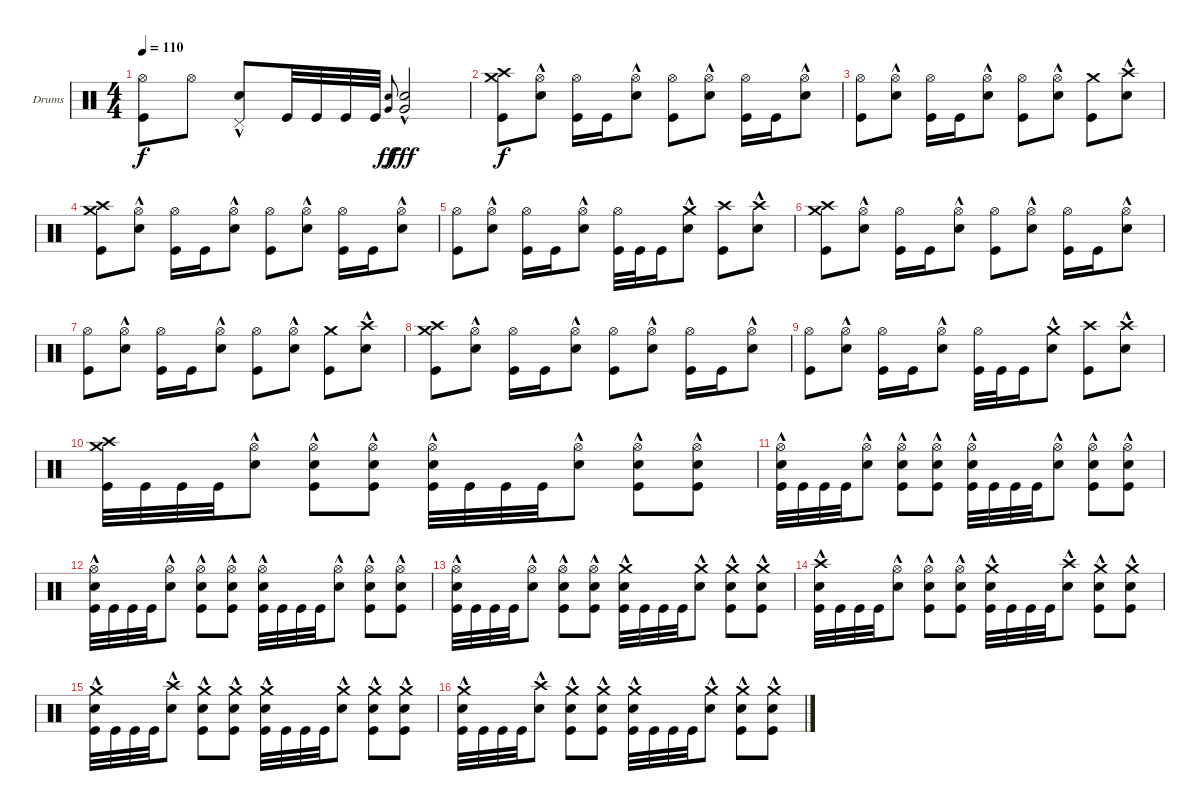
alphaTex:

\bracketExtendMode groupsimilarinstruments
\firstSystemTrackNameOrientation horizontal
\otherSystemsTrackNameOrientation horizontal
\track ("Drumkit (Christoph)" "Drums") {instrument percussion}
\staff {score}
\articulation defaults
\ts (4 4)
\tempo 110
\clef neutral
\ks c
("Hi-Hat (open)" "Kick (hit)").8{dy f} "Hi-Hat (open)".8 ("Pedal Hi-Hat (hit)" "Snare (hit) 2"{hac}).8 "Kick (hit)".32 "Kick (hit)".32 "Kick (hit)".32 "Kick (hit)".32 ("Snare (hit) 2" "Very Low Tom (hit)").8{gr onbeat dy ff} ("Snare (hit) 2"{hac} "Very Low Tom (hit)"{hac}).2{dy fff} |
("Crash medium (hit)" "Kick (hit)" "Crash high (hit)").8{dy f} ("Hi-Hat (open)" "Snare (hit) 2"{hac}).8 ("Hi-Hat (open)" "Kick (hit)").16 "Kick (hit)".16 ("Hi-Hat (open)" "Snare (hit) 2"{hac}).8 ("Hi-Hat (open)" "Kick (hit)").8 ("Hi-Hat (open)" "Snare (hit) 2"{hac}).8 ("Hi-Hat (open)" "Kick (hit)").16 "Kick (hit)".16 ("Hi-Hat (open)" "Snare (hit) 2"{hac}).8 |
("Hi-Hat (open)" "Kick (hit)").8 ("Hi-Hat (open)" "Snare (hit) 2"{hac}).8 ("Hi-Hat (open)" "Kick (hit)").16 "Kick (hit)".16 ("Hi-Hat (open)" "Snare (hit) 2"{hac}).8 ("Hi-Hat (open)" "Kick (hit)").8 ("Hi-Hat (open)" "Snare (hit) 2"{hac}).8 ("Crash medium (hit)" "Kick (hit)").8 ("Crash high (hit)" "Snare (hit) 2"{hac}).8 |
("Crash medium (hit)" "Kick (hit)" "Crash high (hit)").8 ("Hi-Hat (open)" "Snare (hit) 2"{hac}).8 ("Hi-Hat (open)" "Kick (hit)").16 "Kick (hit)".16 ("Hi-Hat (open)" "Snare (hit) 2"{hac}).8 ("Hi-Hat (open)" "Kick (hit)").8 ("Hi-Hat (open)" "Snare (hit) 2"{hac}).8 ("Hi-Hat (open)" "Kick (hit)").16 "Kick (hit)".16 ("Hi-Hat (open)" "Snare (hit) 2"{hac}).8 |
("Hi-Hat (open)" "Kick (hit)").8 ("Hi-Hat (open)" "Snare (hit) 2"{hac}).8 ("Hi-Hat (open)" "Kick (hit)").16 "Kick (hit)".16 ("Hi-Hat (open)" "Snare (hit) 2"{hac}).8 ("Hi-Hat (open)" "Kick (hit)").32 "Kick (hit)".32 "Kick (hit)".16 ("Crash medium (hit)" "Snare (hit) 2"{hac}).8 ("Crash high (hit)" "Kick (hit)").8 ("Crash high (hit)" "Snare (hit) 2"{hac}).8 |
("Crash medium (hit)" "Kick (hit)" "Crash high (hit)").8 ("Hi-Hat (open)" "Snare (hit) 2"{hac}).8 ("Hi-Hat (open)" "Kick (hit)").16 "Kick (hit)".16 ("Hi-Hat (open)" "Snare (hit) 2"{hac}).8 ("Hi-Hat (open)" "Kick (hit)").8 ("Hi-Hat (open)" "Snare (hit) 2"{hac}).8 ("Hi-Hat (open)" "Kick (hit)").16 "Kick (hit)".16 ("Hi-Hat (open)" "Snare (hit) 2"{hac}).8 |
("Hi-Hat (open)" "Kick (hit)").8 ("Hi-Hat (open)" "Snare (hit) 2"{hac}).8 ("Hi-Hat (open)" "Kick (hit)").16 "Kick (hit)".16 ("Hi-Hat (open)" "Snare (hit) 2"{hac}).8 ("Hi-Hat (open)" "Kick (hit)").8 ("Hi-Hat (open)" "Snare (hit) 2"{hac}).8 ("Crash medium (hit)" "Kick (hit)").8 ("Crash high (hit)" "Snare (hit) 2"{hac}).8 |
("Crash medium (hit)" "Kick (hit)" "Crash high (hit)").8 ("Hi-Hat (open)" "Snare (hit) 2"{hac}).8 ("Hi-Hat (open)" "Kick (hit)").16 "Kick (hit)".16 ("Hi-Hat (open)" "Snare (hit) 2"{hac}).8 ("Hi-Hat (open)" "Kick (hit)").8 ("Hi-Hat (open)" "Snare (hit) 2"{hac}).8 ("Hi-Hat (open)" "Kick (hit)").16 "Kick (hit)".16 ("Hi-Hat (open)" "Snare (hit) 2"{hac}).8 |
("Hi-Hat (open)" "Kick (hit)").8 ("Hi-Hat (open)" "Snare (hit) 2"{hac}).8 ("Hi-Hat (open)" "Kick (hit)").16 "Kick (hit)".16 ("Hi-Hat (open)" "Snare (hit) 2"{hac}).8 ("Hi-Hat (open)" "Kick (hit)").32 "Kick (hit)".32 "Kick (hit)".16 ("Crash medium (hit)" "Snare (hit) 2"{hac}).8 ("Crash high (hit)" "Kick (hit)").8 ("Crash high (hit)" "Snare (hit) 2"{hac}).8 |
("Crash medium (hit)" "Kick (hit)" "Crash high (hit)").32 "Kick (hit)".32 "Kick (hit)".32 "Kick (hit)".32 ("Hi-Hat (open)" "Snare (hit) 2"{hac}).8 ("Hi-Hat (open)" "Kick (hit)" "Snare (hit) 2"{hac}).8 ("Hi-Hat (open)" "Kick (hit)" "Snare (hit) 2"{hac}).8 ("Hi-Hat (open)" "Kick (hit)" "Snare (hit) 2"{hac}).32 "Kick (hit)".32 "Kick (hit)".32 "Kick (hit)".32 ("Hi-Hat (open)" "Snare (hit) 2"{hac}).8 ("Hi-Hat (open)" "Kick (hit)" "Snare (hit) 2"{hac}).8 ("Hi-Hat (open)" "Kick (hit)" "Snare (hit) 2"{hac}).8 |
("Hi-Hat (open)" "Kick (hit)" "Snare (hit) 2"{hac}).32 "Kick (hit)".32 "Kick (hit)".32 "Kick (hit)".32 ("Hi-Hat (open)" "Snare (hit) 2"{hac}).8 ("Hi-Hat (open)" "Kick (hit)" "Snare (hit) 2"{hac}).8 ("Hi-Hat (open)" "Kick (hit)" "Snare (hit) 2"{hac}).8 ("Hi-Hat (open)" "Kick (hit)" "Snare (hit) 2"{hac}).32 "Kick (hit)".32 "Kick (hit)".32 "Kick (hit)".32 ("Hi-Hat (open)" "Snare (hit) 2"{hac}).8 ("Hi-Hat (open)" "Kick (hit)" "Snare (hit) 2"{hac}).8 ("Hi-Hat (open)" "Kick (hit)" "Snare (hit) 2"{hac}).8 |
("Hi-Hat (open)" "Kick (hit)" "Snare (hit) 2"{hac}).32 "Kick (hit)".32 "Kick (hit)".32 "Kick (hit)".32 ("Hi-Hat (open)" "Snare (hit) 2"{hac}).8 ("Hi-Hat (open)" "Kick (hit)" "Snare (hit) 2"{hac}).8 ("Hi-Hat (open)" "Kick (hit)" "Snare (hit) 2"{hac}).8 ("Hi-Hat (open)" "Kick (hit)" "Snare (hit) 2"{hac}).32 "Kick (hit)".32 "Kick (hit)".32 "Kick (hit)".32 ("Hi-Hat (open)" "Snare (hit) 2"{hac}).8 ("Hi-Hat (open)" "Kick (hit)" "Snare (hit) 2"{hac}).8 ("Hi-Hat (open)" "Kick (hit)" "Snare (hit) 2"{hac}).8 |
("Hi-Hat (open)" "Kick (hit)" "Snare (hit) 2"{hac}).32 "Kick (hit)".32 "Kick (hit)".32 "Kick (hit)".32 ("Hi-Hat (open)" "Snare (hit) 2"{hac}).8 ("Hi-Hat (open)" "Kick (hit)" "Snare (hit) 2"{hac}).8 ("Hi-Hat (open)" "Kick (hit)" "Snare (hit) 2"{hac}).8 ("Crash medium (hit)" "Kick (hit)" "Snare (hit) 2"{hac}).32 "Kick (hit)".32 "Kick (hit)".32 "Kick (hit)".32 ("Crash medium (hit)" "Snare (hit) 2"{hac}).8 ("Crash medium (hit)" "Kick (hit)" "Snare (hit) 2"{hac}).8 ("Crash medium (hit)" "Kick (hit)" "Snare (hit) 2"{hac}).8 |
("Crash high (hit)" "Kick (hit)" "Snare (hit) 2"{hac}).32 "Kick (hit)".32 "Kick (hit)".32 "Kick (hit)".32 ("Hi-Hat (open)" "Snare (hit) 2"{hac}).8 ("Hi-Hat (open)" "Kick (hit)" "Snare (hit) 2"{hac}).8 ("Hi-Hat (open)" "Kick (hit)" "Snare (hit) 2"{hac}).8 ("Crash medium (hit)" "Kick (hit)" "Snare (hit) 2"{hac}).32 "Kick (hit)".32 "Kick (hit)".32 "Kick (hit)".32 ("Crash high (hit)" "Snare (hit) 2"{hac}).8 ("Crash medium (hit)" "Kick (hit)" "Snare (hit) 2"{hac}).8 ("Crash medium (hit)" "Kick (hit)" "Snare (hit) 2"{hac}).8 |
("Crash medium (hit)" "Kick (hit)" "Snare (hit) 2"{hac}).32 "Kick (hit)".32 "Kick (hit)".32 "Kick (hit)".32 ("Crash high (hit)" "Snare (hit) 2"{hac}).8 ("Crash medium (hit)" "Kick (hit)" "Snare (hit) 2"{hac}).8 ("Crash medium (hit)" "Kick (hit)" "Snare (hit) 2"{hac}).8 ("Crash medium (hit)" "Kick (hit)" "Snare (hit) 2"{hac}).32 "Kick (hit)".32 "Kick (hit)".32 "Kick (hit)".32 ("Crash medium (hit)" "Snare (hit) 2"{hac}).8 ("Crash medium (hit)" "Kick (hit)" "Snare (hit) 2"{hac}).8 ("Crash medium (hit)" "Kick (hit)" "Snare (hit) 2"{hac}).8 |
("Crash medium (hit)" "Kick (hit)" "Snare (hit) 2"{hac}).32 "Kick (hit)".32 "Kick (hit)".32 "Kick (hit)".32 ("Crash high (hit)" "Snare (hit) 2"{hac}).8 ("Crash medium (hit)" "Kick (hit)" "Snare (hit) 2"{hac}).8 ("Crash medium (hit)" "Kick (hit)" "Snare (hit) 2"{hac}).8 ("Crash medium (hit)" "Kick (hit)" "Snare (hit) 2"{hac}).32 "Kick (hit)".32 "Kick (hit)".32 "Kick (hit)".32 ("Crash medium (hit)" "Snare (hit) 2"{hac}).8 ("Crash medium (hit)" "Kick (hit)" "Snare (hit) 2"{hac}).8 ("Crash medium (hit)" "Kick (hit)" "Snare (hit) 2"{hac}).8
